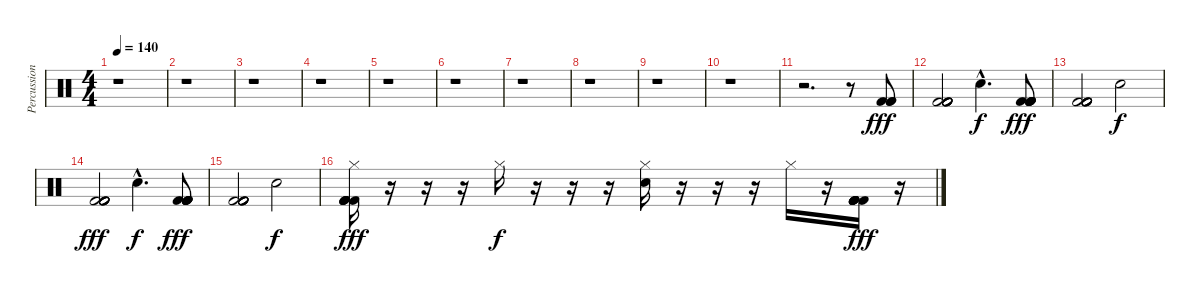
\track ("Percussions" "Percussion") {instrument percussion}
\staff {score}
\articulation defaults
\ts (4 4)
\tempo 140
\clef neutral
\ks c
r.1{dy fff} |
r.1 |
r.1 |
r.1 |
r.1 |
r.1 |
r.1 |
r.1 |
r.1 |
r.1 |
r.2{d} r.8 ("Kick (hit) 2" "Kick (hit) 2" "Kick (hit) 2").8 |
("Kick (hit) 2" "Kick (hit) 2" "Kick (hit) 2" "Kick (hit) 2" "Kick (hit) 2" "Kick (hit) 2").2 "Snare (hit) 2"{hac}.4{d dy f} ("Kick (hit) 2" "Kick (hit) 2" "Kick (hit) 2" "Kick (hit) 2" "Kick (hit) 2" "Kick (hit) 2").8{dy fff} |
("Kick (hit) 2" "Kick (hit) 2" "Kick (hit) 2" "Kick (hit) 2" "Kick (hit) 2" "Kick (hit) 2").2 "Snare (hit) 2".2{dy f} |
("Kick (hit) 2" "Kick (hit) 2" "Kick (hit) 2" "Kick (hit) 2" "Kick (hit) 2" "Kick (hit) 2").2{dy fff} "Snare (hit) 2"{hac}.4{d dy f} ("Kick (hit) 2" "Kick (hit) 2" "Kick (hit) 2" "Kick (hit) 2" "Kick (hit) 2" "Kick (hit) 2").8{dy fff} |
("Kick (hit) 2" "Kick (hit) 2" "Kick (hit) 2" "Kick (hit) 2" "Kick (hit) 2" "Kick (hit) 2").2 "Snare (hit) 2".2{dy f} |
("Hi-Hat (closed)" "Kick (hit) 2" "Kick (hit) 2" "Kick (hit) 2" "Kick (hit) 2" "Kick (hit) 2").16{dy fff} r.16 r.16 r.16 "Hi-Hat (closed)".16{dy f} r.16 r.16 r.16 ("Hi-Hat (closed)" "Snare (hit) 2").16 r.16 r.16 r.16 "Hi-Hat (closed)".16 r.16 ("Kick (hit) 2" "Kick (hit) 2" "Kick (hit) 2" "Kick (hit) 2" "Kick (hit) 2" "Kick (hit) 2").16{dy fff} r.16
